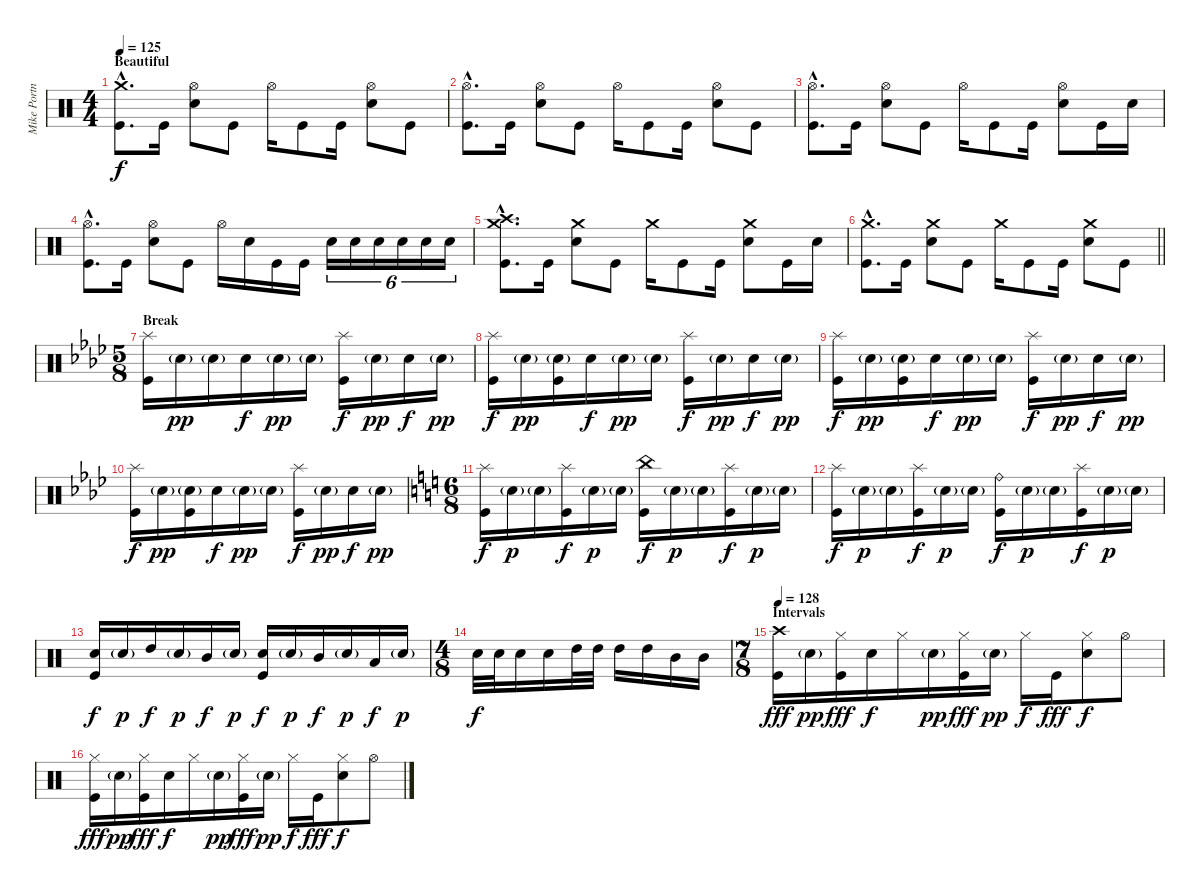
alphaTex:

\track ("Mike Portnoy" "Mike Portn") {instrument percussion}
\staff {score}
\articulation defaults
\ts (4 4)
\section ("" "Beautiful")
\tempo 125
\clef neutral
\ks c
("Crash medium (hit)"{hac} "Kick (hit)"{hac}).8{d dy f} "Kick (hit)".16 ("Hi-Hat (open)" "Electric Snare (hit)").8 "Kick (hit)".8 "Hi-Hat (open)".16 "Kick (hit)".8 "Kick (hit)".16 ("Hi-Hat (open)" "Electric Snare (hit)").8 "Kick (hit)".8 |
("Hi-Hat (open)"{hac} "Kick (hit)"{hac}).8{d} "Kick (hit)".16 ("Hi-Hat (open)" "Electric Snare (hit)").8 "Kick (hit)".8 "Hi-Hat (open)".16 "Kick (hit)".8 "Kick (hit)".16 ("Hi-Hat (open)" "Electric Snare (hit)").8 "Kick (hit)".8 |
("Hi-Hat (open)"{hac} "Kick (hit)"{hac}).8{d} "Kick (hit)".16 ("Hi-Hat (open)" "Electric Snare (hit)").8 "Kick (hit)".8 "Hi-Hat (open)".16 "Kick (hit)".8 "Kick (hit)".16 ("Hi-Hat (open)" "Electric Snare (hit)").8 "Kick (hit)".16 "Electric Snare (hit)".16 |
("Hi-Hat (open)"{hac} "Kick (hit)"{hac}).8{d} "Kick (hit)".16 ("Hi-Hat (open)" "Electric Snare (hit)").8 "Kick (hit)".8 "Hi-Hat (open)".16 "Electric Snare (hit)".16 "Kick (hit)".16 "Kick (hit)".16 "Electric Snare (hit)".16{tu (6 4)} "Electric Snare (hit)".16{tu (6 4)} "Electric Snare (hit)".16{tu (6 4)} "Electric Snare (hit)".16{tu (6 4)} "Electric Snare (hit)".16{tu (6 4)} "Electric Snare (hit)".16{tu (6 4)} |
("Crash medium (hit)"{hac} "Crash high (hit)"{hac} "Kick (hit)"{hac}).8{d} "Kick (hit)".16 ("Crash medium (hit)" "Electric Snare (hit)").8 "Kick (hit)".8 "Crash medium (hit)".16 "Kick (hit)".8 "Kick (hit)".16 ("Crash medium (hit)" "Electric Snare (hit)").8 "Kick (hit)".16 "Electric Snare (hit)".16 |
\barLineRight lightlight
("Crash medium (hit)"{hac} "Kick (hit)"{hac}).8{d} "Kick (hit)".16 ("Crash medium (hit)" "Electric Snare (hit)").8 "Kick (hit)".8 "Crash medium (hit)".16 "Kick (hit)".8 "Kick (hit)".16 ("Crash medium (hit)" "Electric Snare (hit)").8 "Kick (hit)".8 |
\ts (5 8)
\section ("" "Break")
\ks ab
("Splash (hit)" "Kick (hit)").16 "Electric Snare (hit)"{g}.16{dy pp} "Electric Snare (hit)"{g}.16 "Electric Snare (hit)".16{dy f} "Electric Snare (hit)"{g}.16{dy pp} "Electric Snare (hit)"{g}.16 ("Splash (hit)" "Kick (hit)").16{dy f} "Electric Snare (hit)"{g}.16{dy pp} "Electric Snare (hit)".16{dy f} "Electric Snare (hit)"{g}.16{dy pp} |
("Splash (hit)" "Kick (hit)").16{dy f} "Electric Snare (hit)"{g}.16{dy pp} ("Electric Snare (hit)"{g} "Kick (hit)").16 "Electric Snare (hit)".16{dy f} "Electric Snare (hit)"{g}.16{dy pp} "Electric Snare (hit)"{g}.16 ("Splash (hit)" "Kick (hit)").16{dy f} "Electric Snare (hit)"{g}.16{dy pp} "Electric Snare (hit)".16{dy f} "Electric Snare (hit)"{g}.16{dy pp} |
("Splash (hit)" "Kick (hit)").16{dy f} "Electric Snare (hit)"{g}.16{dy pp} ("Electric Snare (hit)"{g} "Kick (hit)").16 "Electric Snare (hit)".16{dy f} "Electric Snare (hit)"{g}.16{dy pp} "Electric Snare (hit)"{g}.16 ("Splash (hit)" "Kick (hit)").16{dy f} "Electric Snare (hit)"{g}.16{dy pp} "Electric Snare (hit)".16{dy f} "Electric Snare (hit)"{g}.16{dy pp} |
("Splash (hit)" "Kick (hit)").16{dy f} "Electric Snare (hit)"{g}.16{dy pp} ("Electric Snare (hit)"{g} "Kick (hit)").16 "Electric Snare (hit)".16{dy f} "Electric Snare (hit)"{g}.16{dy pp} "Electric Snare (hit)"{g}.16 ("Splash (hit)" "Kick (hit)").16{dy f} "Electric Snare (hit)"{g}.16{dy pp} "Electric Snare (hit)".16{dy f} "Electric Snare (hit)"{g}.16{dy pp} |
\ts (6 8)
\ks c
("Splash (hit)" "Kick (hit)").16{dy f} "Electric Snare (hit)"{g}.16{dy p} "Electric Snare (hit)"{g}.16 ("Splash (hit)" "Kick (hit)").16{dy f} "Electric Snare (hit)"{g}.16{dy p} "Electric Snare (hit)"{g}.16 ("China (hit)" "Kick (hit)").16{dy f} "Electric Snare (hit)"{g}.16{dy p} "Electric Snare (hit)"{g}.16 ("Splash (hit)" "Kick (hit)").16{dy f} "Electric Snare (hit)"{g}.16{dy p} "Electric Snare (hit)"{g}.16 |
("Splash (hit)" "Kick (hit)").16{dy f} "Electric Snare (hit)"{g}.16{dy p} "Electric Snare (hit)"{g}.16 ("Splash (hit)" "Kick (hit)").16{dy f} "Electric Snare (hit)"{g}.16{dy p} "Electric Snare (hit)"{g}.16 ("Ride (bell)" "Kick (hit)").16{dy f} "Electric Snare (hit)"{g}.16{dy p} "Electric Snare (hit)"{g}.16 ("Splash (hit)" "Kick (hit)").16{dy f} "Electric Snare (hit)"{g}.16{dy p} "Electric Snare (hit)"{g}.16 |
("Electric Snare (hit)" "Kick (hit)").16{dy f} "Electric Snare (hit)"{g}.16{dy p} "High Tom (hit)".16{dy f} "Electric Snare (hit)"{g}.16{dy p} "Mid Tom (hit)".16{dy f} "Electric Snare (hit)"{g}.16{dy p} ("Electric Snare (hit)" "Kick (hit)").16{dy f} "Electric Snare (hit)"{g}.16{dy p} "Mid Tom (hit)".16{dy f} "Electric Snare (hit)"{g}.16{dy p} "Low Tom (hit)".16{dy f} "Electric Snare (hit)"{g}.16{dy p} |
\ts (4 8)
"Electric Snare (hit)".32{dy f} "Electric Snare (hit)".32 "Electric Snare (hit)".16 "Electric Snare (hit)".16 "High Tom (hit)".32 "High Tom (hit)".32 "High Tom (hit)".16 "High Tom (hit)".16 "Mid Tom (hit)".16 "Mid Tom (hit)".16 |
\ts (7 8)
\section ("" "Intervals")
\tempo 128
("Crash high (hit)" "Kick (hit)").16{dy fff} "Electric Snare (hit)"{g}.16{dy pp} ("Hi-Hat (closed)" "Kick (hit)").16{dy fff} "Electric Snare (hit)".16{dy f} "Hi-Hat (closed)".16 "Electric Snare (hit)"{g}.16{dy pp} ("Hi-Hat (closed)" "Kick (hit)").16{dy fff} "Electric Snare (hit)"{g}.16{dy pp} "Hi-Hat (closed)".16{dy f} "Kick (hit)".16{dy fff} ("Hi-Hat (closed)" "Electric Snare (hit)").8{dy f} "Hi-Hat (open)".8 |
("Hi-Hat (closed)" "Kick (hit)").16{dy fff} "Electric Snare (hit)"{g}.16{dy pp} ("Hi-Hat (closed)" "Kick (hit)").16{dy fff} "Electric Snare (hit)".16{dy f} "Hi-Hat (closed)".16 "Electric Snare (hit)"{g}.16{dy pp} ("Hi-Hat (closed)" "Kick (hit)").16{dy fff} "Electric Snare (hit)"{g}.16{dy pp} "Hi-Hat (closed)".16{dy f} "Kick (hit)".16{dy fff} ("Hi-Hat (closed)" "Electric Snare (hit)").8{dy f} "Hi-Hat (open)".8
